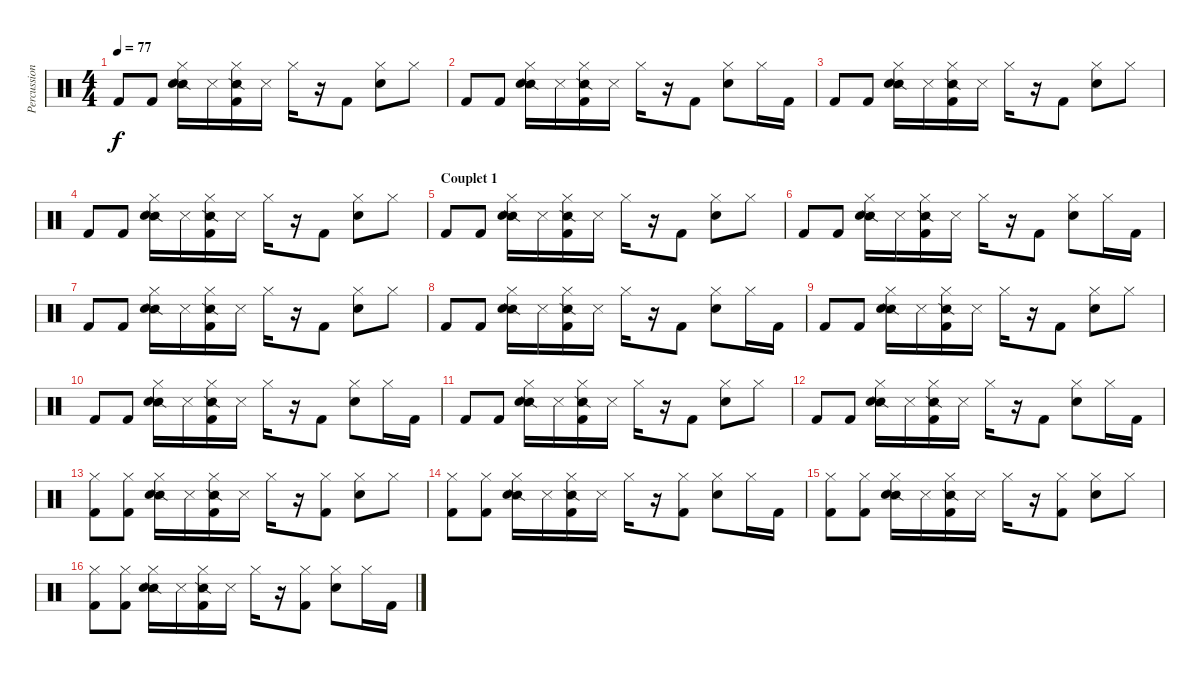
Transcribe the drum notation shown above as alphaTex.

\track ("Percussions" "Percussion") {instrument percussion}
\staff {score}
\articulation defaults
\ts (4 4)
\tempo 77
\clef neutral
\ks c "Kick (hit) 2".8{dy f} "Kick (hit) 2".8
("Hi-Hat (closed)" "Snare (side stick) 2" "Electric Snare (hit)").16 "Metronome (hit)".16 ("Hi-Hat (closed)" "Snare (side stick) 2" "Kick (hit) 2").16 "Metronome (hit)".16 "Hi-Hat (closed)".16 r.16 "Kick (hit) 2".8 ("Hi-Hat (closed)" "Electric Snare (hit)").8 "Hi-Hat (closed)".8 |
"Kick (hit) 2".8 "Kick (hit) 2".8 ("Hi-Hat (closed)" "Snare (side stick) 2" "Electric Snare (hit)").16 "Metronome (hit)".16 ("Hi-Hat (closed)" "Snare (side stick) 2" "Kick (hit) 2").16 "Metronome (hit)".16 "Hi-Hat (closed)".16 r.16 "Kick (hit) 2".8 ("Hi-Hat (closed)" "Electric Snare (hit)").8 "Hi-Hat (closed)".16 "Kick (hit) 2".16 |
"Kick (hit) 2".8 "Kick (hit) 2".8 ("Hi-Hat (closed)" "Snare (side stick) 2" "Electric Snare (hit)").16 "Metronome (hit)".16 ("Hi-Hat (closed)" "Snare (side stick) 2" "Kick (hit) 2").16 "Metronome (hit)".16 "Hi-Hat (closed)".16 r.16 "Kick (hit) 2".8 ("Hi-Hat (closed)" "Electric Snare (hit)").8 "Hi-Hat (closed)".8 |
"Kick (hit) 2".8 "Kick (hit) 2".8 ("Hi-Hat (closed)" "Snare (side stick) 2" "Electric Snare (hit)").16 "Metronome (hit)".16 ("Hi-Hat (closed)" "Snare (side stick) 2" "Kick (hit) 2").16 "Metronome (hit)".16 "Hi-Hat (closed)".16 r.16 "Kick (hit) 2".8 ("Hi-Hat (closed)" "Electric Snare (hit)").8 "Hi-Hat (closed)".8 |
\section ("" "Couplet 1")
"Kick (hit) 2".8 "Kick (hit) 2".8 ("Hi-Hat (closed)" "Snare (side stick) 2" "Electric Snare (hit)").16 "Metronome (hit)".16 ("Hi-Hat (closed)" "Snare (side stick) 2" "Kick (hit) 2").16 "Metronome (hit)".16 "Hi-Hat (closed)".16 r.16 "Kick (hit) 2".8 ("Hi-Hat (closed)" "Electric Snare (hit)").8 "Hi-Hat (closed)".8 |
"Kick (hit) 2".8 "Kick (hit) 2".8 ("Hi-Hat (closed)" "Snare (side stick) 2" "Electric Snare (hit)").16 "Metronome (hit)".16 ("Hi-Hat (closed)" "Snare (side stick) 2" "Kick (hit) 2").16 "Metronome (hit)".16 "Hi-Hat (closed)".16 r.16 "Kick (hit) 2".8 ("Hi-Hat (closed)" "Electric Snare (hit)").8 "Hi-Hat (closed)".16 "Kick (hit) 2".16 |
"Kick (hit) 2".8 "Kick (hit) 2".8 ("Hi-Hat (closed)" "Snare (side stick) 2" "Electric Snare (hit)").16 "Metronome (hit)".16 ("Hi-Hat (closed)" "Snare (side stick) 2" "Kick (hit) 2").16 "Metronome (hit)".16 "Hi-Hat (closed)".16 r.16 "Kick (hit) 2".8 ("Hi-Hat (closed)" "Electric Snare (hit)").8 "Hi-Hat (closed)".8 |
"Kick (hit) 2".8 "Kick (hit) 2".8 ("Hi-Hat (closed)" "Snare (side stick) 2" "Electric Snare (hit)").16 "Metronome (hit)".16 ("Hi-Hat (closed)" "Snare (side stick) 2" "Kick (hit) 2").16 "Metronome (hit)".16 "Hi-Hat (closed)".16 r.16 "Kick (hit) 2".8 ("Hi-Hat (closed)" "Electric Snare (hit)").8 "Hi-Hat (closed)".16 "Kick (hit) 2".16 |
"Kick (hit) 2".8 "Kick (hit) 2".8 ("Hi-Hat (closed)" "Snare (side stick) 2" "Electric Snare (hit)").16 "Metronome (hit)".16 ("Hi-Hat (closed)" "Snare (side stick) 2" "Kick (hit) 2").16 "Metronome (hit)".16 "Hi-Hat (closed)".16 r.16 "Kick (hit) 2".8 ("Hi-Hat (closed)" "Electric Snare (hit)").8 "Hi-Hat (closed)".8 |
"Kick (hit) 2".8 "Kick (hit) 2".8 ("Hi-Hat (closed)" "Snare (side stick) 2" "Electric Snare (hit)").16 "Metronome (hit)".16 ("Hi-Hat (closed)" "Snare (side stick) 2" "Kick (hit) 2").16 "Metronome (hit)".16 "Hi-Hat (closed)".16 r.16 "Kick (hit) 2".8 ("Hi-Hat (closed)" "Electric Snare (hit)").8 "Hi-Hat (closed)".16 "Kick (hit) 2".16 |
"Kick (hit) 2".8 "Kick (hit) 2".8 ("Hi-Hat (closed)" "Snare (side stick) 2" "Electric Snare (hit)").16 "Metronome (hit)".16 ("Hi-Hat (closed)" "Snare (side stick) 2" "Kick (hit) 2").16 "Metronome (hit)".16 "Hi-Hat (closed)".16 r.16 "Kick (hit) 2".8 ("Hi-Hat (closed)" "Electric Snare (hit)").8 "Hi-Hat (closed)".8 |
"Kick (hit) 2".8 "Kick (hit) 2".8 ("Hi-Hat (closed)" "Snare (side stick) 2" "Electric Snare (hit)").16 "Metronome (hit)".16 ("Hi-Hat (closed)" "Snare (side stick) 2" "Kick (hit) 2").16 "Metronome (hit)".16 "Hi-Hat (closed)".16 r.16 "Kick (hit) 2".8 ("Hi-Hat (closed)" "Electric Snare (hit)").8 "Hi-Hat (closed)".16 "Kick (hit) 2".16 |
("Hi-Hat (closed)" "Kick (hit) 2").8 ("Hi-Hat (closed)" "Kick (hit) 2").8 ("Hi-Hat (closed)" "Snare (side stick) 2" "Electric Snare (hit)").16 "Metronome (hit)".16 ("Hi-Hat (closed)" "Snare (side stick) 2" "Kick (hit) 2").16 "Metronome (hit)".16 "Hi-Hat (closed)".16 r.16 ("Hi-Hat (closed)" "Kick (hit) 2").8 ("Hi-Hat (closed)" "Electric Snare (hit)").8 "Hi-Hat (closed)".8 |
("Hi-Hat (closed)" "Kick (hit) 2").8 ("Hi-Hat (closed)" "Kick (hit) 2").8 ("Hi-Hat (closed)" "Snare (side stick) 2" "Electric Snare (hit)").16 "Metronome (hit)".16 ("Hi-Hat (closed)" "Snare (side stick) 2" "Kick (hit) 2").16 "Metronome (hit)".16 "Hi-Hat (closed)".16 r.16 ("Hi-Hat (closed)" "Kick (hit) 2").8 ("Hi-Hat (closed)" "Electric Snare (hit)").8 "Hi-Hat (closed)".16 "Kick (hit) 2".16 |
("Hi-Hat (closed)" "Kick (hit) 2").8 ("Hi-Hat (closed)" "Kick (hit) 2").8 ("Hi-Hat (closed)" "Snare (side stick) 2" "Electric Snare (hit)").16 "Metronome (hit)".16 ("Hi-Hat (closed)" "Snare (side stick) 2" "Kick (hit) 2").16 "Metronome (hit)".16 "Hi-Hat (closed)".16 r.16 ("Hi-Hat (closed)" "Kick (hit) 2").8 ("Hi-Hat (closed)" "Electric Snare (hit)").8 "Hi-Hat (closed)".8 |
("Hi-Hat (closed)" "Kick (hit) 2").8 ("Hi-Hat (closed)" "Kick (hit) 2").8 ("Hi-Hat (closed)" "Snare (side stick) 2" "Electric Snare (hit)").16 "Metronome (hit)".16 ("Hi-Hat (closed)" "Snare (side stick) 2" "Kick (hit) 2").16 "Metronome (hit)".16 "Hi-Hat (closed)".16 r.16 ("Hi-Hat (closed)" "Kick (hit) 2").8 ("Hi-Hat (closed)" "Electric Snare (hit)").8 "Hi-Hat (closed)".16 "Kick (hit) 2".16
